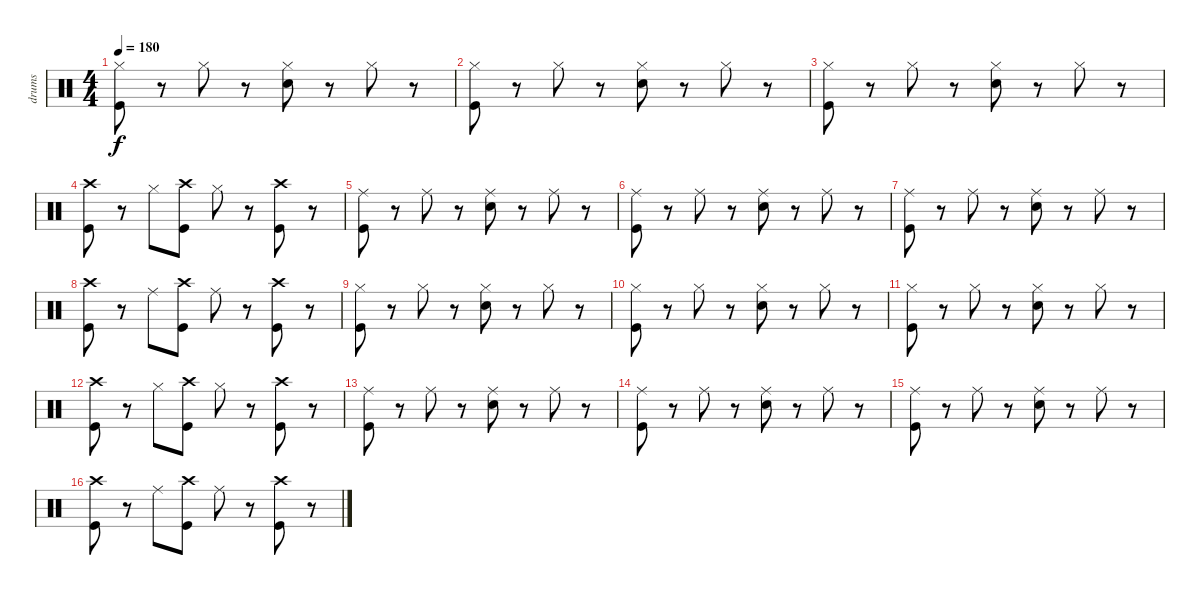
\track ("drums" "drums") {instrument percussion}
\staff {score}
\articulation defaults
\ts (4 4)
\tempo 180
\clef neutral
\ks c
("Hi-Hat (closed)" "Kick (hit)").8{dy f} r.8 "Hi-Hat (closed)".8 r.8 ("Hi-Hat (closed)" "Electric Snare (hit)").8 r.8 "Hi-Hat (closed)".8 r.8 |
("Hi-Hat (closed)" "Kick (hit)").8 r.8 "Hi-Hat (closed)".8 r.8 ("Hi-Hat (closed)" "Electric Snare (hit)").8 r.8 "Hi-Hat (closed)".8 r.8 |
("Hi-Hat (closed)" "Kick (hit)").8 r.8 "Hi-Hat (closed)".8 r.8 ("Hi-Hat (closed)" "Electric Snare (hit)").8 r.8 "Hi-Hat (closed)".8 r.8 |
("Crash high (hit)" "Kick (hit)").8 r.8 "Hi-Hat (closed)".8 ("Crash high (hit)" "Kick (hit)").8 "Hi-Hat (closed)".8 r.8 ("Crash high (hit)" "Kick (hit)").8 r.8 |
("Ride (middle)" "Kick (hit)").8 r.8 "Ride (middle)".8 r.8 ("Ride (middle)" "Electric Snare (hit)").8 r.8 "Ride (middle)".8 r.8 |
("Ride (middle)" "Kick (hit)").8 r.8 "Ride (middle)".8 r.8 ("Ride (middle)" "Electric Snare (hit)").8 r.8 "Ride (middle)".8 r.8 |
("Ride (middle)" "Kick (hit)").8 r.8 "Ride (middle)".8 r.8 ("Ride (middle)" "Electric Snare (hit)").8 r.8 "Ride (middle)".8 r.8 |
("Crash high (hit)" "Kick (hit)").8 r.8 "Ride (middle)".8 ("Crash high (hit)" "Kick (hit)").8 "Ride (middle)".8 r.8 ("Crash high (hit)" "Kick (hit)").8 r.8 |
("Hi-Hat (closed)" "Kick (hit)").8 r.8 "Hi-Hat (closed)".8 r.8 ("Hi-Hat (closed)" "Electric Snare (hit)").8 r.8 "Hi-Hat (closed)".8 r.8 |
("Hi-Hat (closed)" "Kick (hit)").8 r.8 "Hi-Hat (closed)".8 r.8 ("Hi-Hat (closed)" "Electric Snare (hit)").8 r.8 "Hi-Hat (closed)".8 r.8 |
("Hi-Hat (closed)" "Kick (hit)").8 r.8 "Hi-Hat (closed)".8 r.8 ("Hi-Hat (closed)" "Electric Snare (hit)").8 r.8 "Hi-Hat (closed)".8 r.8 |
("Crash high (hit)" "Kick (hit)").8 r.8 "Hi-Hat (closed)".8 ("Crash high (hit)" "Kick (hit)").8 "Hi-Hat (closed)".8 r.8 ("Crash high (hit)" "Kick (hit)").8 r.8 |
("Ride (middle)" "Kick (hit)").8 r.8 "Ride (middle)".8 r.8 ("Ride (middle)" "Electric Snare (hit)").8 r.8 "Ride (middle)".8 r.8 |
("Ride (middle)" "Kick (hit)").8 r.8 "Ride (middle)".8 r.8 ("Ride (middle)" "Electric Snare (hit)").8 r.8 "Ride (middle)".8 r.8 |
("Ride (middle)" "Kick (hit)").8 r.8 "Ride (middle)".8 r.8 ("Ride (middle)" "Electric Snare (hit)").8 r.8 "Ride (middle)".8 r.8 |
("Crash high (hit)" "Kick (hit)").8 r.8 "Ride (middle)".8 ("Crash high (hit)" "Kick (hit)").8 "Ride (middle)".8 r.8 ("Crash high (hit)" "Kick (hit)").8 r.8
